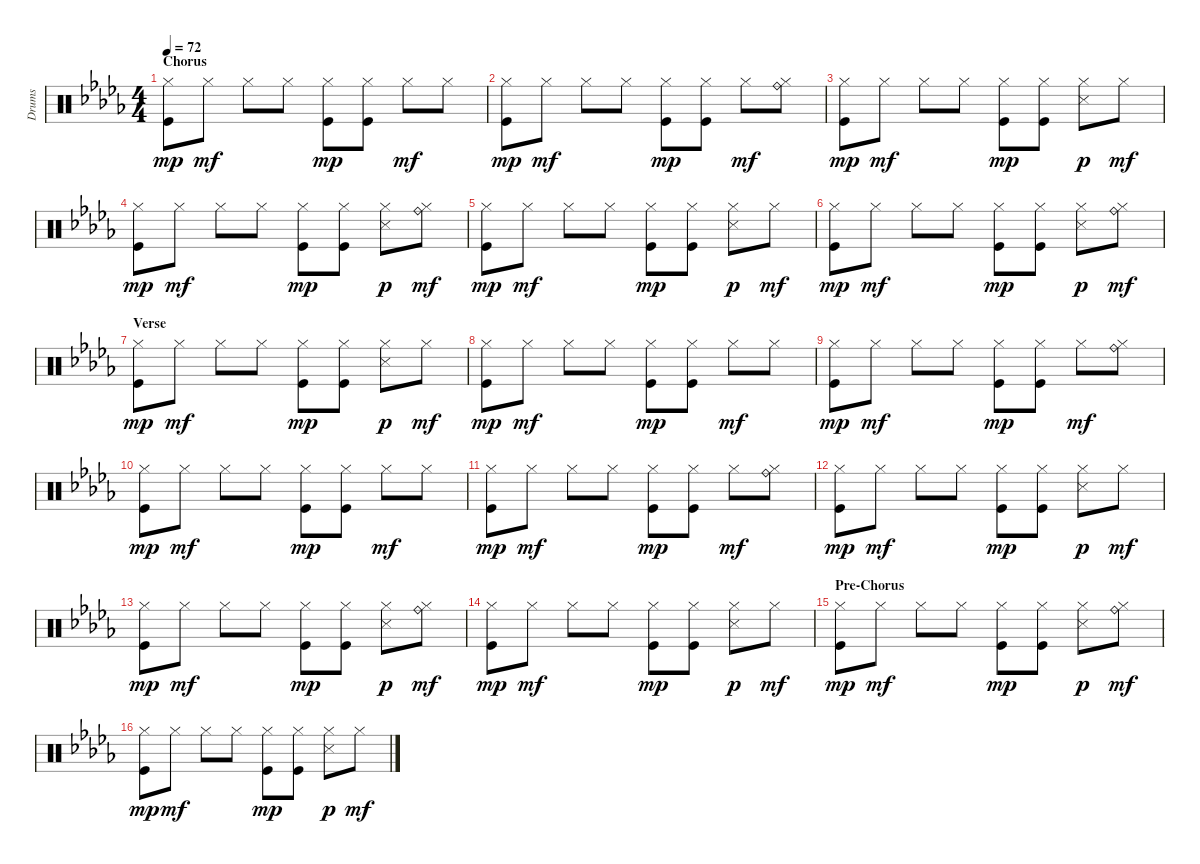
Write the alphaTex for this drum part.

\track ("Drums" "Drums") {instrument percussion}
\staff {score}
\articulation defaults
\ts (4 4)
\section ("" "Chorus")
\tempo 72
\clef neutral
\ks db
("Hi-Hat (closed)" "Kick (hit)").8{dy mp} "Hi-Hat (closed)".8{dy mf} "Hi-Hat (closed)".8 "Hi-Hat (closed)".8 ("Hi-Hat (closed)" "Kick (hit)").8{dy mp} ("Hi-Hat (closed)" "Kick (hit)").8 "Hi-Hat (closed)".8{dy mf} "Hi-Hat (closed)".8 |
("Hi-Hat (closed)" "Kick (hit)").8{dy mp} "Hi-Hat (closed)".8{dy mf} "Hi-Hat (closed)".8 "Hi-Hat (closed)".8 ("Hi-Hat (closed)" "Kick (hit)").8{dy mp} ("Hi-Hat (closed)" "Kick (hit)").8 "Hi-Hat (closed)".8{dy mf} ("Ride (bell)" "Hi-Hat (closed)").8 |
("Hi-Hat (closed)" "Kick (hit)").8{dy mp} "Hi-Hat (closed)".8{dy mf} "Hi-Hat (closed)".8 "Hi-Hat (closed)".8 ("Hi-Hat (closed)" "Kick (hit)").8{dy mp} ("Hi-Hat (closed)" "Kick (hit)").8 ("Hi-Hat (closed)" "Snare (side stick) 3").8{dy p} "Hi-Hat (closed)".8{dy mf} |
("Hi-Hat (closed)" "Kick (hit)").8{dy mp} "Hi-Hat (closed)".8{dy mf} "Hi-Hat (closed)".8 "Hi-Hat (closed)".8 ("Hi-Hat (closed)" "Kick (hit)").8{dy mp} ("Hi-Hat (closed)" "Kick (hit)").8 ("Hi-Hat (closed)" "Snare (side stick) 3").8{dy p} ("Ride (bell)" "Hi-Hat (closed)").8{dy mf} |
("Hi-Hat (closed)" "Kick (hit)").8{dy mp} "Hi-Hat (closed)".8{dy mf} "Hi-Hat (closed)".8 "Hi-Hat (closed)".8 ("Hi-Hat (closed)" "Kick (hit)").8{dy mp} ("Hi-Hat (closed)" "Kick (hit)").8 ("Hi-Hat (closed)" "Snare (side stick) 3").8{dy p} "Hi-Hat (closed)".8{dy mf} |
("Hi-Hat (closed)" "Kick (hit)").8{dy mp} "Hi-Hat (closed)".8{dy mf} "Hi-Hat (closed)".8 "Hi-Hat (closed)".8 ("Hi-Hat (closed)" "Kick (hit)").8{dy mp} ("Hi-Hat (closed)" "Kick (hit)").8 ("Hi-Hat (closed)" "Snare (side stick) 3").8{dy p} ("Ride (bell)" "Hi-Hat (closed)").8{dy mf} |
\section ("" "Verse")
("Hi-Hat (closed)" "Kick (hit)").8{dy mp} "Hi-Hat (closed)".8{dy mf} "Hi-Hat (closed)".8 "Hi-Hat (closed)".8 ("Hi-Hat (closed)" "Kick (hit)").8{dy mp} ("Hi-Hat (closed)" "Kick (hit)").8 ("Hi-Hat (closed)" "Snare (side stick) 3").8{dy p} "Hi-Hat (closed)".8{dy mf} |
("Hi-Hat (closed)" "Kick (hit)").8{dy mp} "Hi-Hat (closed)".8{dy mf} "Hi-Hat (closed)".8 "Hi-Hat (closed)".8 ("Hi-Hat (closed)" "Kick (hit)").8{dy mp} ("Hi-Hat (closed)" "Kick (hit)").8 "Hi-Hat (closed)".8{dy mf} "Hi-Hat (closed)".8 |
("Hi-Hat (closed)" "Kick (hit)").8{dy mp} "Hi-Hat (closed)".8{dy mf} "Hi-Hat (closed)".8 "Hi-Hat (closed)".8 ("Hi-Hat (closed)" "Kick (hit)").8{dy mp} ("Hi-Hat (closed)" "Kick (hit)").8 "Hi-Hat (closed)".8{dy mf} ("Ride (bell)" "Hi-Hat (closed)").8 |
("Hi-Hat (closed)" "Kick (hit)").8{dy mp} "Hi-Hat (closed)".8{dy mf} "Hi-Hat (closed)".8 "Hi-Hat (closed)".8 ("Hi-Hat (closed)" "Kick (hit)").8{dy mp} ("Hi-Hat (closed)" "Kick (hit)").8 "Hi-Hat (closed)".8{dy mf} "Hi-Hat (closed)".8 |
("Hi-Hat (closed)" "Kick (hit)").8{dy mp} "Hi-Hat (closed)".8{dy mf} "Hi-Hat (closed)".8 "Hi-Hat (closed)".8 ("Hi-Hat (closed)" "Kick (hit)").8{dy mp} ("Hi-Hat (closed)" "Kick (hit)").8 "Hi-Hat (closed)".8{dy mf} ("Ride (bell)" "Hi-Hat (closed)").8 |
("Hi-Hat (closed)" "Kick (hit)").8{dy mp} "Hi-Hat (closed)".8{dy mf} "Hi-Hat (closed)".8 "Hi-Hat (closed)".8 ("Hi-Hat (closed)" "Kick (hit)").8{dy mp} ("Hi-Hat (closed)" "Kick (hit)").8 ("Hi-Hat (closed)" "Snare (side stick) 3").8{dy p} "Hi-Hat (closed)".8{dy mf} |
("Hi-Hat (closed)" "Kick (hit)").8{dy mp} "Hi-Hat (closed)".8{dy mf} "Hi-Hat (closed)".8 "Hi-Hat (closed)".8 ("Hi-Hat (closed)" "Kick (hit)").8{dy mp} ("Hi-Hat (closed)" "Kick (hit)").8 ("Hi-Hat (closed)" "Snare (side stick) 3").8{dy p} ("Ride (bell)" "Hi-Hat (closed)").8{dy mf} |
("Hi-Hat (closed)" "Kick (hit)").8{dy mp} "Hi-Hat (closed)".8{dy mf} "Hi-Hat (closed)".8 "Hi-Hat (closed)".8 ("Hi-Hat (closed)" "Kick (hit)").8{dy mp} ("Hi-Hat (closed)" "Kick (hit)").8 ("Hi-Hat (closed)" "Snare (side stick) 3").8{dy p} "Hi-Hat (closed)".8{dy mf} |
\section ("" "Pre-Chorus")
("Hi-Hat (closed)" "Kick (hit)").8{dy mp} "Hi-Hat (closed)".8{dy mf} "Hi-Hat (closed)".8 "Hi-Hat (closed)".8 ("Hi-Hat (closed)" "Kick (hit)").8{dy mp} ("Hi-Hat (closed)" "Kick (hit)").8 ("Hi-Hat (closed)" "Snare (side stick) 3").8{dy p} ("Ride (bell)" "Hi-Hat (closed)").8{dy mf} |
("Hi-Hat (closed)" "Kick (hit)").8{dy mp} "Hi-Hat (closed)".8{dy mf} "Hi-Hat (closed)".8 "Hi-Hat (closed)".8 ("Hi-Hat (closed)" "Kick (hit)").8{dy mp} ("Hi-Hat (closed)" "Kick (hit)").8 ("Hi-Hat (closed)" "Snare (side stick) 3").8{dy p} "Hi-Hat (closed)".8{dy mf}
